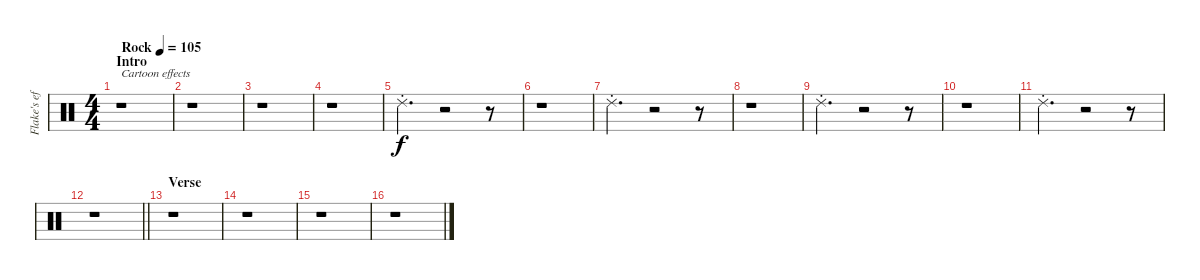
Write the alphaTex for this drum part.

\track ("Flake's effects" "Flake's ef") {instrument percussion}
\staff {score}
\articulation defaults
\ts (4 4)
\section ("" "Intro")
\tempo (105 "Rock")
\clef neutral
\ks c
r.1{txt "Cartoon effects" dy f} |
r.1 |
r.1 |
r.1 |
"Ride (choke) 2".4{d} r.2 r.8 |
r.1 |
"Ride (choke) 2".4{d} r.2 r.8 |
r.1 |
"Ride (choke) 2".4{d} r.2 r.8 |
r.1 |
"Ride (choke) 2".4{d} r.2 r.8 |
\barLineRight lightlight
r.1 |
\section ("" "Verse")
r.1 |
r.1 |
r.1 |
r.1
